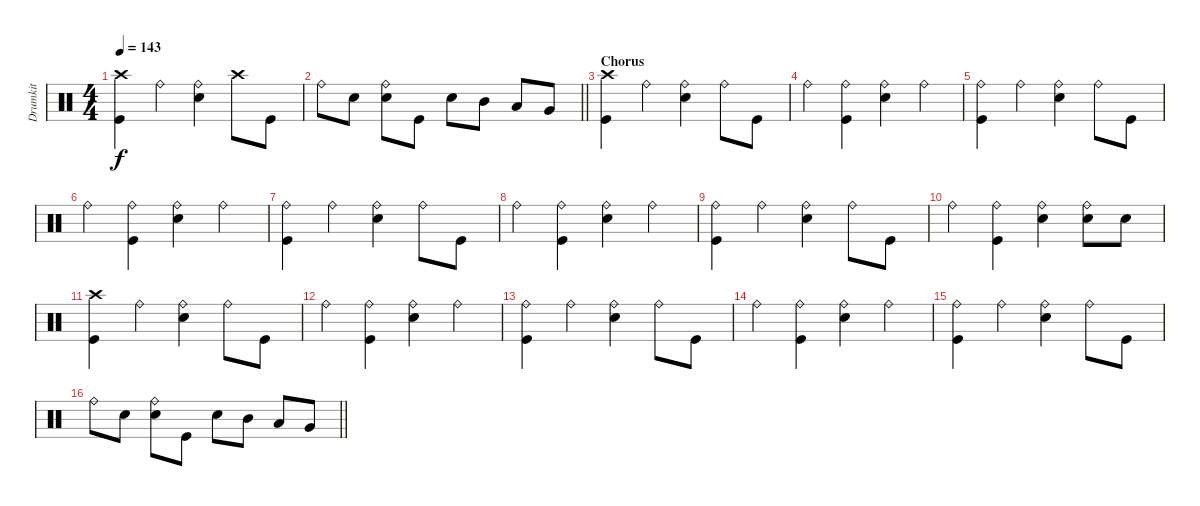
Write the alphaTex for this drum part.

\track ("Drumkit" "Drumkit") {instrument percussion}
\staff {score}
\articulation defaults
\ts (4 4)
\tempo 143
\clef neutral
\ks c
("Crash high (hit)" "Kick (hit)").4{dy f} "Ride (bell)".4 ("Snare (hit) 2" "Ride (bell)").4 "Crash high (hit)".8 "Kick (hit)".8 |
\barLineRight lightlight "Ride (bell)".8 "Snare (hit) 2".8
("Snare (hit) 2" "Ride (bell)").8 "Kick (hit)".8 "Snare (hit) 2".8 "Mid Tom (hit)".8 "Low Tom (hit)".8 "Very Low Tom (hit)".8 |
\section ("" "Chorus")
("Kick (hit)" "Crash high (hit)").4 "Ride (bell)".4 ("Snare (hit) 2" "Ride (bell)").4 "Ride (bell)".8 "Kick (hit)".8 |
"Ride (bell)".4 ("Kick (hit)" "Ride (bell)").4 ("Snare (hit) 2" "Ride (bell)").4 "Ride (bell)".4 |
("Kick (hit)" "Ride (bell)").4 "Ride (bell)".4 ("Snare (hit) 2" "Ride (bell)").4 "Ride (bell)".8 "Kick (hit)".8 |
"Ride (bell)".4 ("Kick (hit)" "Ride (bell)").4 ("Snare (hit) 2" "Ride (bell)").4 "Ride (bell)".4 |
("Kick (hit)" "Ride (bell)").4 "Ride (bell)".4 ("Snare (hit) 2" "Ride (bell)").4 "Ride (bell)".8 "Kick (hit)".8 |
"Ride (bell)".4 ("Kick (hit)" "Ride (bell)").4 ("Snare (hit) 2" "Ride (bell)").4 "Ride (bell)".4 |
("Kick (hit)" "Ride (bell)").4 "Ride (bell)".4 ("Snare (hit) 2" "Ride (bell)").4 "Ride (bell)".8 "Kick (hit)".8 |
"Ride (bell)".4 ("Kick (hit)" "Ride (bell)").4 ("Snare (hit) 2" "Ride (bell)").4 ("Snare (hit) 2" "Ride (bell)").8 "Snare (hit) 2".8 |
("Crash high (hit)" "Kick (hit)").4 "Ride (bell)".4 ("Snare (hit) 2" "Ride (bell)").4 "Ride (bell)".8 "Kick (hit)".8 |
"Ride (bell)".4 ("Kick (hit)" "Ride (bell)").4 ("Snare (hit) 2" "Ride (bell)").4 "Ride (bell)".4 |
("Kick (hit)" "Ride (bell)").4 "Ride (bell)".4 ("Snare (hit) 2" "Ride (bell)").4 "Ride (bell)".8 "Kick (hit)".8 |
"Ride (bell)".4 ("Kick (hit)" "Ride (bell)").4 ("Snare (hit) 2" "Ride (bell)").4 "Ride (bell)".4 |
("Kick (hit)" "Ride (bell)").4 "Ride (bell)".4 ("Snare (hit) 2" "Ride (bell)").4 "Ride (bell)".8 "Kick (hit)".8 |
\barLineRight lightlight "Ride (bell)".8 "Snare (hit) 2".8
("Snare (hit) 2" "Ride (bell)").8 "Kick (hit)".8 "Snare (hit) 2".8 "Mid Tom (hit)".8 "Low Tom (hit)".8 "Very Low Tom (hit)".8
